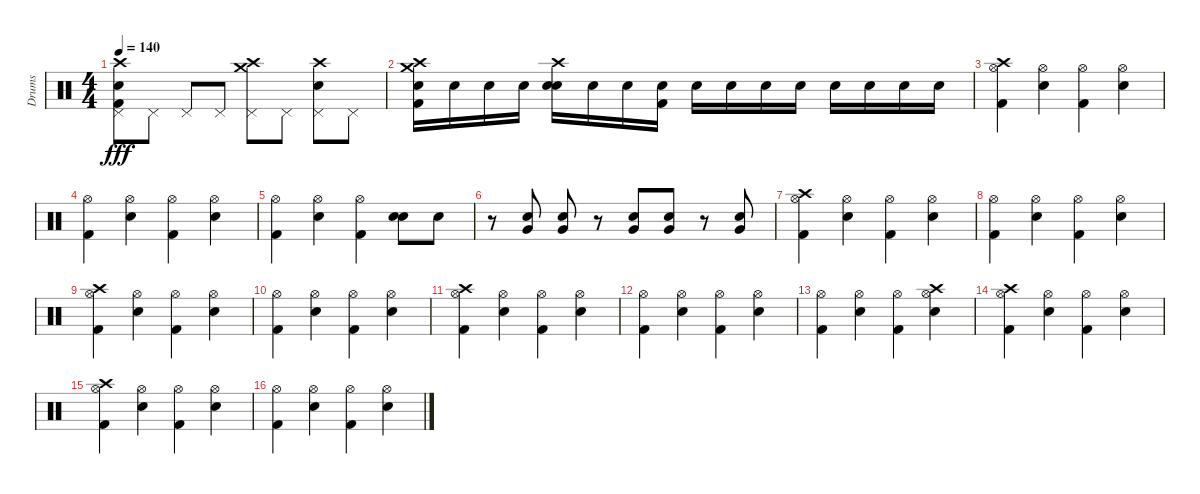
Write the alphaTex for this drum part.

\track ("Drums" "Drums") {instrument percussion}
\staff {score}
\articulation defaults
\ts (4 4)
\tempo 140
\clef neutral
\ks c
("Crash high (hit)" "Pedal Hi-Hat (hit)" "Snare (hit) 2" "Kick (hit) 2").8{dy fff} "Pedal Hi-Hat (hit)".8 "Pedal Hi-Hat (hit)".8 "Pedal Hi-Hat (hit)".8 ("Crash medium (hit)" "Crash high (hit)" "Pedal Hi-Hat (hit)").8 "Pedal Hi-Hat (hit)".8 ("Crash high (hit)" "Pedal Hi-Hat (hit)" "Snare (hit) 2").8 "Pedal Hi-Hat (hit)".8 |
("Crash medium (hit)" "Crash high (hit)" "Snare (hit) 2" "Kick (hit) 2").16 "Snare (hit) 2".16 "Snare (hit) 2".16 "Snare (hit) 2".16 ("Crash high (hit)" "Snare (hit) 2" "Snare (hit) 2").16 "Snare (hit) 2".16 "Snare (hit) 2".16 ("Snare (hit) 2" "Kick (hit) 2").16 "Snare (hit) 2".16 "Snare (hit) 2".16 "Snare (hit) 2".16 "Snare (hit) 2".16 "Snare (hit) 2".16 "Snare (hit) 2".16 "Snare (hit) 2".16 "Snare (hit) 2".16 |
("Crash high (hit)" "Hi-Hat (open)" "Kick (hit) 2").4 ("Hi-Hat (open)" "Snare (hit) 2").4 ("Hi-Hat (open)" "Kick (hit) 2").4 ("Snare (hit) 2" "Hi-Hat (open)").4 |
("Hi-Hat (open)" "Kick (hit) 2").4 ("Snare (hit) 2" "Hi-Hat (open)").4 ("Hi-Hat (open)" "Kick (hit) 2").4 ("Snare (hit) 2" "Hi-Hat (open)").4 |
("Hi-Hat (open)" "Kick (hit) 2").4 ("Snare (hit) 2" "Hi-Hat (open)").4 ("Hi-Hat (open)" "Kick (hit) 2").4 ("Snare (hit) 2" "Snare (hit) 2").8 "Snare (hit) 2".8 |
r.8 ("Very Low Tom (hit)" "Snare (hit) 2").8 ("Very Low Tom (hit)" "Snare (hit) 2").8 r.8 ("Very Low Tom (hit)" "Snare (hit) 2").8 ("Very Low Tom (hit)" "Snare (hit) 2").8 r.8 ("Very Low Tom (hit)" "Snare (hit) 2").8 |
("Crash high (hit)" "Hi-Hat (open)" "Kick (hit) 2").4 ("Snare (hit) 2" "Hi-Hat (open)").4 ("Hi-Hat (open)" "Kick (hit) 2").4 ("Snare (hit) 2" "Hi-Hat (open)").4 |
("Hi-Hat (open)" "Kick (hit) 2").4 ("Snare (hit) 2" "Hi-Hat (open)").4 ("Hi-Hat (open)" "Kick (hit) 2").4 ("Snare (hit) 2" "Hi-Hat (open)").4 |
("Crash high (hit)" "Hi-Hat (open)" "Kick (hit) 2").4 ("Snare (hit) 2" "Hi-Hat (open)").4 ("Hi-Hat (open)" "Kick (hit) 2").4 ("Snare (hit) 2" "Hi-Hat (open)").4 |
("Hi-Hat (open)" "Kick (hit) 2").4 ("Snare (hit) 2" "Hi-Hat (open)").4 ("Hi-Hat (open)" "Kick (hit) 2").4 ("Snare (hit) 2" "Hi-Hat (open)").4 |
("Crash high (hit)" "Hi-Hat (open)" "Kick (hit) 2").4 ("Snare (hit) 2" "Hi-Hat (open)").4 ("Hi-Hat (open)" "Kick (hit) 2").4 ("Snare (hit) 2" "Hi-Hat (open)").4 |
("Hi-Hat (open)" "Kick (hit) 2").4 ("Snare (hit) 2" "Hi-Hat (open)").4 ("Hi-Hat (open)" "Kick (hit) 2").4 ("Snare (hit) 2" "Hi-Hat (open)").4 |
("Hi-Hat (open)" "Kick (hit) 2").4 ("Snare (hit) 2" "Hi-Hat (open)").4 ("Hi-Hat (open)" "Kick (hit) 2").4 ("Crash high (hit)" "Snare (hit) 2" "Hi-Hat (open)").4 |
("Crash high (hit)" "Hi-Hat (open)" "Kick (hit) 2").4 ("Snare (hit) 2" "Hi-Hat (open)").4 ("Hi-Hat (open)" "Kick (hit) 2").4 ("Snare (hit) 2" "Hi-Hat (open)").4 |
("Crash high (hit)" "Hi-Hat (open)" "Kick (hit) 2").4 ("Snare (hit) 2" "Hi-Hat (open)").4 ("Hi-Hat (open)" "Kick (hit) 2").4 ("Snare (hit) 2" "Hi-Hat (open)").4 |
("Hi-Hat (open)" "Kick (hit) 2").4 ("Snare (hit) 2" "Hi-Hat (open)").4 ("Hi-Hat (open)" "Kick (hit) 2").4 ("Snare (hit) 2" "Hi-Hat (open)").4
